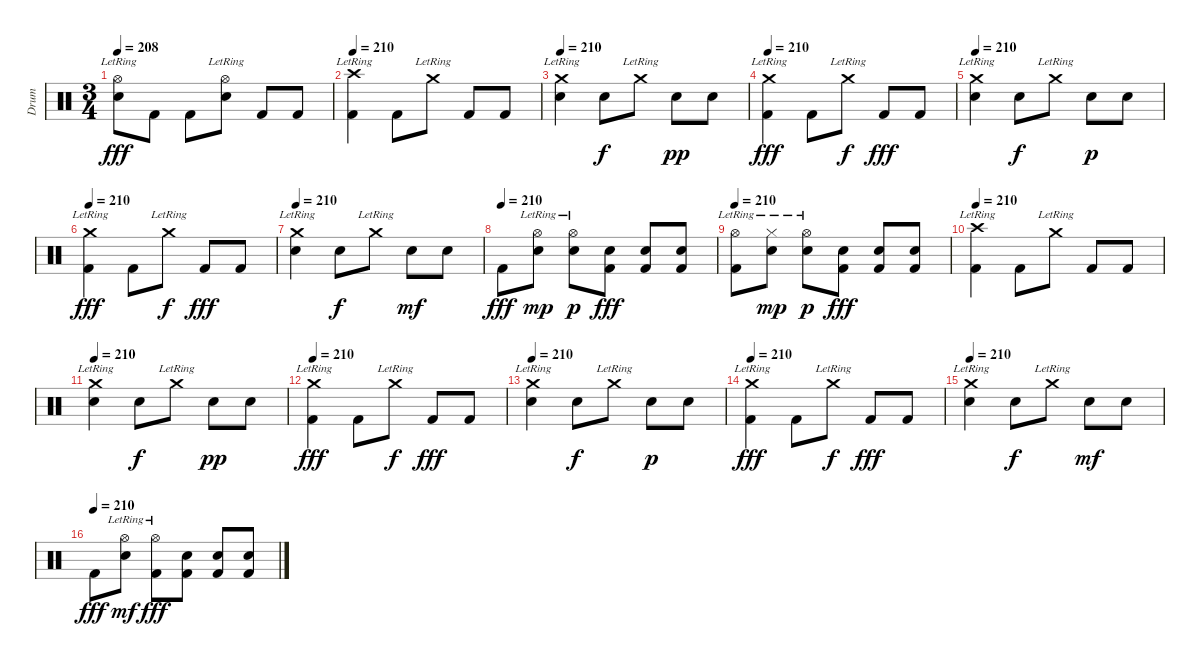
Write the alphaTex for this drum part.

\track ("Drum" "Drum") {instrument percussion}
\staff {score}
\articulation defaults
\ts (3 4)
\tempo 208
\clef neutral
\ks c
("Hi-Hat (open)"{lr} "Electric Snare (hit)").8{dy fff} "Kick (hit) 2".8 "Kick (hit) 2".8 ("Hi-Hat (open)"{lr} "Electric Snare (hit)").8 "Kick (hit) 2".8 "Kick (hit) 2".8 |
\tempo 210
("Crash high (hit)"{lr} "Kick (hit) 2").4 "Kick (hit) 2".8 "Crash medium (hit)"{lr}.8 "Kick (hit) 2".8 "Kick (hit) 2".8 |
\tempo 210
("Crash medium (hit)"{lr} "Electric Snare (hit)").4 "Electric Snare (hit)".8{dy f} "Crash medium (hit)"{lr}.8 "Electric Snare (hit)".8{dy pp} "Electric Snare (hit)".8 |
\tempo 210
("Crash medium (hit)"{lr} "Kick (hit) 2").4{dy fff} "Kick (hit) 2".8 "Crash medium (hit)"{lr}.8{dy f} "Kick (hit) 2".8{dy fff} "Kick (hit) 2".8 |
\tempo 210
("Crash medium (hit)"{lr} "Electric Snare (hit)").4 "Electric Snare (hit)".8{dy f} "Crash medium (hit)"{lr}.8 "Electric Snare (hit)".8{dy p} "Electric Snare (hit)".8 |
\tempo 210
("Crash medium (hit)"{lr} "Kick (hit) 2").4{dy fff} "Kick (hit) 2".8 "Crash medium (hit)"{lr}.8{dy f} "Kick (hit) 2".8{dy fff} "Kick (hit) 2".8 |
\tempo 210
("Crash medium (hit)"{lr} "Electric Snare (hit)").4 "Electric Snare (hit)".8{dy f} "Crash medium (hit)"{lr}.8 "Electric Snare (hit)".8{dy mf} "Electric Snare (hit)".8 |
\tempo (210)
"Kick (hit) 2".8{dy fff} ("Hi-Hat (open)"{lr} "Electric Snare (hit)").8{dy mp} ("Hi-Hat (open)"{lr} "Electric Snare (hit)").8{dy p} ("Electric Snare (hit)" "Kick (hit) 2").8{dy fff} ("Electric Snare (hit)" "Kick (hit) 2").8 ("Electric Snare (hit)" "Kick (hit) 2").8 |
\tempo 210
("Hi-Hat (open)"{lr} "Kick (hit) 2").8 ("Hi-Hat (closed)"{lr} "Electric Snare (hit)").8{dy mp} ("Hi-Hat (open)"{lr} "Electric Snare (hit)").8{dy p} ("Electric Snare (hit)" "Kick (hit) 2").8{dy fff} ("Electric Snare (hit)" "Kick (hit) 2").8 ("Electric Snare (hit)" "Kick (hit) 2").8 |
\tempo 210
("Crash high (hit)"{lr} "Kick (hit) 2").4 "Kick (hit) 2".8 "Crash medium (hit)"{lr}.8 "Kick (hit) 2".8 "Kick (hit) 2".8 |
\tempo 210
("Crash medium (hit)"{lr} "Electric Snare (hit)").4 "Electric Snare (hit)".8{dy f} "Crash medium (hit)"{lr}.8 "Electric Snare (hit)".8{dy pp} "Electric Snare (hit)".8 |
\tempo 210
("Crash medium (hit)"{lr} "Kick (hit) 2").4{dy fff} "Kick (hit) 2".8 "Crash medium (hit)"{lr}.8{dy f} "Kick (hit) 2".8{dy fff} "Kick (hit) 2".8 |
\tempo 210
("Crash medium (hit)"{lr} "Electric Snare (hit)").4 "Electric Snare (hit)".8{dy f} "Crash medium (hit)"{lr}.8 "Electric Snare (hit)".8{dy p} "Electric Snare (hit)".8 |
\tempo 210
("Crash medium (hit)"{lr} "Kick (hit) 2").4{dy fff} "Kick (hit) 2".8 "Crash medium (hit)"{lr}.8{dy f} "Kick (hit) 2".8{dy fff} "Kick (hit) 2".8 |
\tempo 210
("Crash medium (hit)"{lr} "Electric Snare (hit)").4 "Electric Snare (hit)".8{dy f} "Crash medium (hit)"{lr}.8 "Electric Snare (hit)".8{dy mf} "Electric Snare (hit)".8 |
\tempo (210)
"Kick (hit) 2".8{dy fff} ("Hi-Hat (open)"{lr} "Electric Snare (hit)").8{dy mf} ("Hi-Hat (open)"{lr} "Kick (hit) 2").8{dy fff} ("Electric Snare (hit)" "Kick (hit) 2").8 ("Electric Snare (hit)" "Kick (hit) 2").8 ("Electric Snare (hit)" "Kick (hit) 2").8
